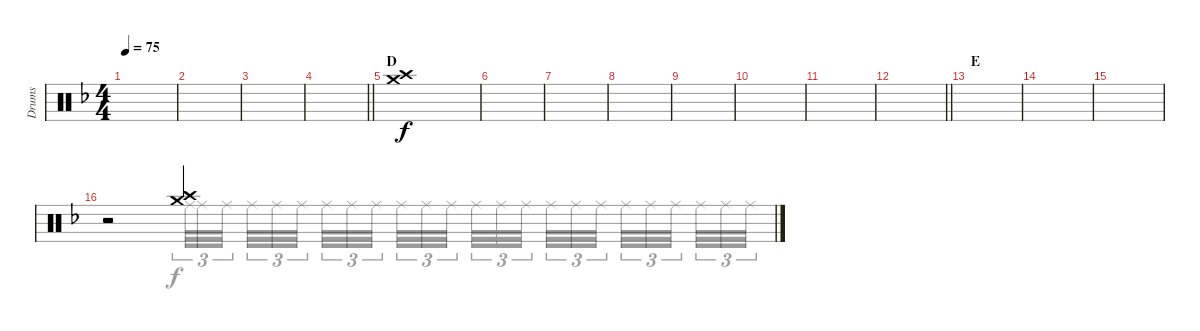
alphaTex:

\track ("Drums" "Drums") {instrument percussion}
\staff {score}
\articulation defaults
\voice
\ts (4 4)
\tempo 75
\clef neutral
\ks dminor
|
|
|
\barLineRight lightlight
|
\section ("" "D")
("Crash high (hit)" "Crash medium (hit)").1 |
|
|
|
|
|
|
\barLineRight lightlight
|
\section ("" "E")
|
|
|
r.2{volume 6} ("Crash high (hit)" "Crash medium (hit)").2{dy f volume 13}
\voice
\clef neutral
\ottava regular
\simile none
\ks dminor
|
|
|
\barLineRight lightlight
|
|
|
|
|
|
|
|
\barLineRight lightlight
|
|
|
|
r.2 "Ride (middle)".32{tu (3 2)} "Ride (middle)".32{tu (3 2)} "Ride (middle)".32{tu (3 2) beam splitsecondary} "Ride (middle)".32{tu (3 2)} "Ride (middle)".32{tu (3 2)} "Ride (middle)".32{tu (3 2) beam splitsecondary} "Ride (middle)".32{tu (3 2)} "Ride (middle)".32{tu (3 2)} "Ride (middle)".32{tu (3 2) beam splitsecondary} "Ride (middle)".32{tu (3 2)} "Ride (middle)".32{tu (3 2)} "Ride (middle)".32{tu (3 2)} "Ride (middle)".32{tu (3 2)} "Ride (middle)".32{tu (3 2)} "Ride (middle)".32{tu (3 2) beam splitsecondary} "Ride (middle)".32{tu (3 2)} "Ride (middle)".32{tu (3 2)} "Ride (middle)".32{tu (3 2) beam splitsecondary} "Ride (middle)".32{tu (3 2)} "Ride (middle)".32{tu (3 2)} "Ride (middle)".32{tu (3 2) beam splitsecondary} "Ride (middle)".32{tu (3 2)} "Ride (middle)".32{tu (3 2)} "Ride (middle)".32{tu (3 2)}
